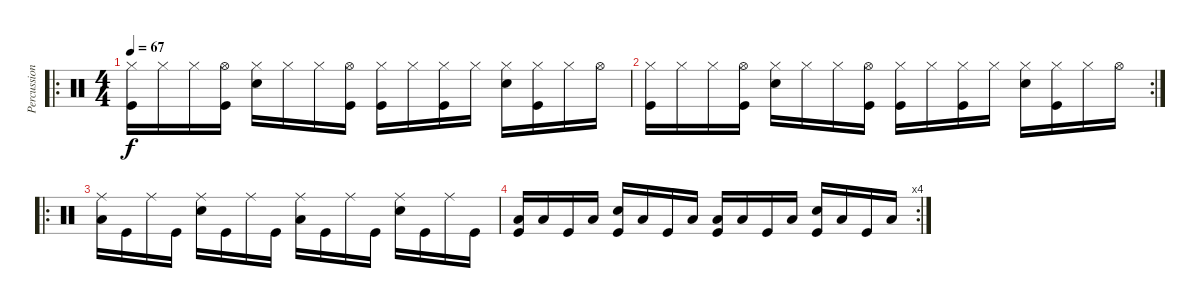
\track ("Percussion" "Percussion") {instrument percussion}
\staff {score}
\articulation defaults
\ro
\ts (4 4)
\tempo 67
\clef neutral
\ks c
("Hi-Hat (closed)" "Kick (hit)").16{dy f} "Hi-Hat (closed)".16 "Hi-Hat (closed)".16 ("Hi-Hat (open)" "Kick (hit)").16 ("Hi-Hat (closed)" "Electric Snare (hit)").16 "Hi-Hat (closed)".16 "Hi-Hat (closed)".16 ("Hi-Hat (open)" "Kick (hit)").16 ("Hi-Hat (closed)" "Kick (hit)").16 "Hi-Hat (closed)".16 ("Hi-Hat (closed)" "Kick (hit)").16 "Hi-Hat (closed)".16 ("Hi-Hat (closed)" "Electric Snare (hit)").16 ("Hi-Hat (closed)" "Kick (hit)").16 "Hi-Hat (closed)".16 "Hi-Hat (open)".16 |
\rc 2
("Hi-Hat (closed)" "Kick (hit)").16 "Hi-Hat (closed)".16 "Hi-Hat (closed)".16 ("Hi-Hat (open)" "Kick (hit)").16 ("Hi-Hat (closed)" "Electric Snare (hit)").16 "Hi-Hat (closed)".16 "Hi-Hat (closed)".16 ("Hi-Hat (open)" "Kick (hit)").16 ("Hi-Hat (closed)" "Kick (hit)").16 "Hi-Hat (closed)".16 ("Hi-Hat (closed)" "Kick (hit)").16 "Hi-Hat (closed)".16 ("Hi-Hat (closed)" "Electric Snare (hit)").16 ("Hi-Hat (closed)" "Kick (hit)").16 "Hi-Hat (closed)".16 "Hi-Hat (open)".16 |
\ro
("Ride (middle)" "Low Tom (hit)").16 "Kick (hit)".16 "Ride (middle)".16 "Kick (hit)".16 ("Ride (middle)" "Electric Snare (hit)").16 "Kick (hit)".16 "Ride (middle)".16 "Kick (hit)".16 ("Ride (middle)" "Low Tom (hit)").16 "Kick (hit)".16 "Ride (middle)".16 "Kick (hit)".16 ("Ride (middle)" "Electric Snare (hit)").16 "Kick (hit)".16 "Ride (middle)".16 "Kick (hit)".16 |
\rc 4
("Kick (hit)" "Low Tom (hit)").16 "Low Floor Tom (hit)".16 "Kick (hit)".16 "Low Floor Tom (hit)".16 ("Kick (hit)" "Electric Snare (hit)").16 "Low Floor Tom (hit)".16 "Kick (hit)".16 "Low Floor Tom (hit)".16 ("Kick (hit)" "Low Tom (hit)").16 "Low Floor Tom (hit)".16 "Kick (hit)".16 "Low Floor Tom (hit)".16 ("Kick (hit)" "Electric Snare (hit)").16 "Low Floor Tom (hit)".16 "Kick (hit)".16 "Low Floor Tom (hit)".16
